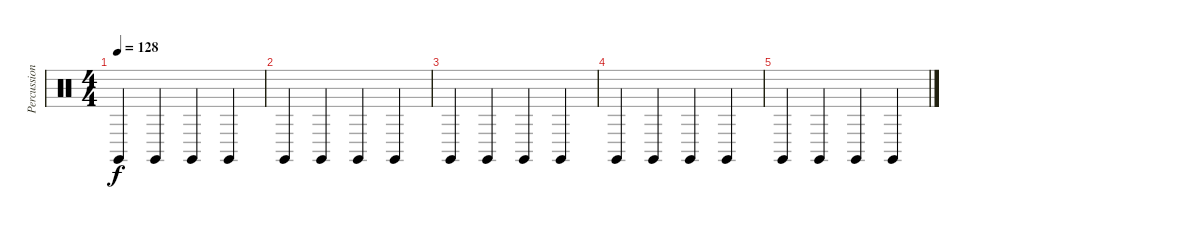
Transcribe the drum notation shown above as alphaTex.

\track ("Percussion" "Percussion") {instrument percussion}
\staff {score}
\articulation defaults
\ts (4 4)
\tempo 128
\clef neutral
\ks c "Claves (hit)".4{dy f} "Claves (hit)".4 "Claves (hit)".4 "Claves (hit)".4
|
"Claves (hit)".4 "Claves (hit)".4 "Claves (hit)".4 "Claves (hit)".4 |
"Claves (hit)".4 "Claves (hit)".4 "Claves (hit)".4 "Claves (hit)".4 |
"Claves (hit)".4 "Claves (hit)".4 "Claves (hit)".4 "Claves (hit)".4 |
"Claves (hit)".4 "Claves (hit)".4 "Claves (hit)".4 "Claves (hit)".4
